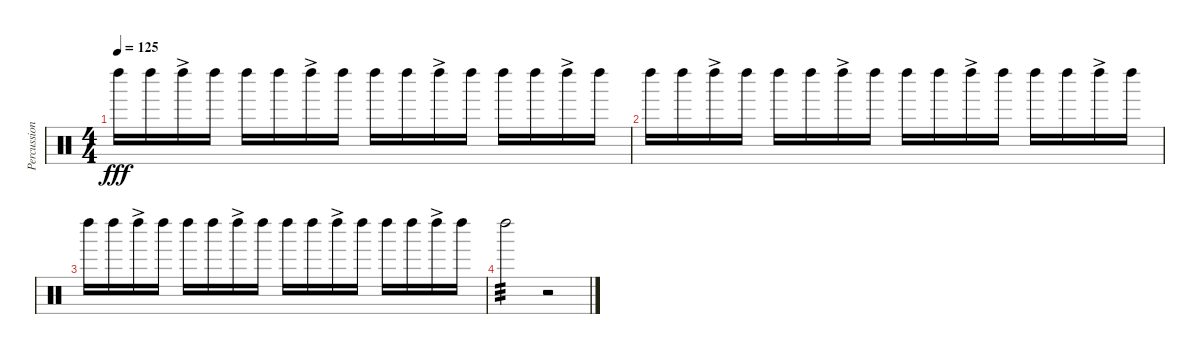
\track ("Percussion" "Percussion") {instrument percussion}
\staff {score}
\articulation defaults
\ts (4 4)
\tempo 125
\clef neutral
\ks c "Left Maraca (hit)".16{dy fff} "Left Maraca (hit)".16 "Left Maraca (hit)"{ac}.16 "Left Maraca (hit)".16 "Left Maraca (hit)".16 "Left Maraca (hit)".16 "Left Maraca (hit)"{ac}.16 "Left Maraca (hit)".16 "Left Maraca (hit)".16 "Left Maraca (hit)".16 "Left Maraca (hit)"{ac}.16 "Left Maraca (hit)".16 "Left Maraca (hit)".16 "Left Maraca (hit)".16 "Left Maraca (hit)"{ac}.16 "Left Maraca (hit)".16
|
"Left Maraca (hit)".16 "Left Maraca (hit)".16 "Left Maraca (hit)"{ac}.16 "Left Maraca (hit)".16 "Left Maraca (hit)".16 "Left Maraca (hit)".16 "Left Maraca (hit)"{ac}.16 "Left Maraca (hit)".16 "Left Maraca (hit)".16 "Left Maraca (hit)".16 "Left Maraca (hit)"{ac}.16 "Left Maraca (hit)".16 "Left Maraca (hit)".16 "Left Maraca (hit)".16 "Left Maraca (hit)"{ac}.16 "Left Maraca (hit)".16 |
"Left Maraca (hit)".16 "Left Maraca (hit)".16 "Left Maraca (hit)"{ac}.16 "Left Maraca (hit)".16 "Left Maraca (hit)".16 "Left Maraca (hit)".16 "Left Maraca (hit)"{ac}.16 "Left Maraca (hit)".16 "Left Maraca (hit)".16 "Left Maraca (hit)".16 "Left Maraca (hit)"{ac}.16 "Left Maraca (hit)".16 "Left Maraca (hit)".16 "Left Maraca (hit)".16 "Left Maraca (hit)"{ac}.16 "Left Maraca (hit)".16 |
"Left Maraca (hit)".2{tp 3} r.2
